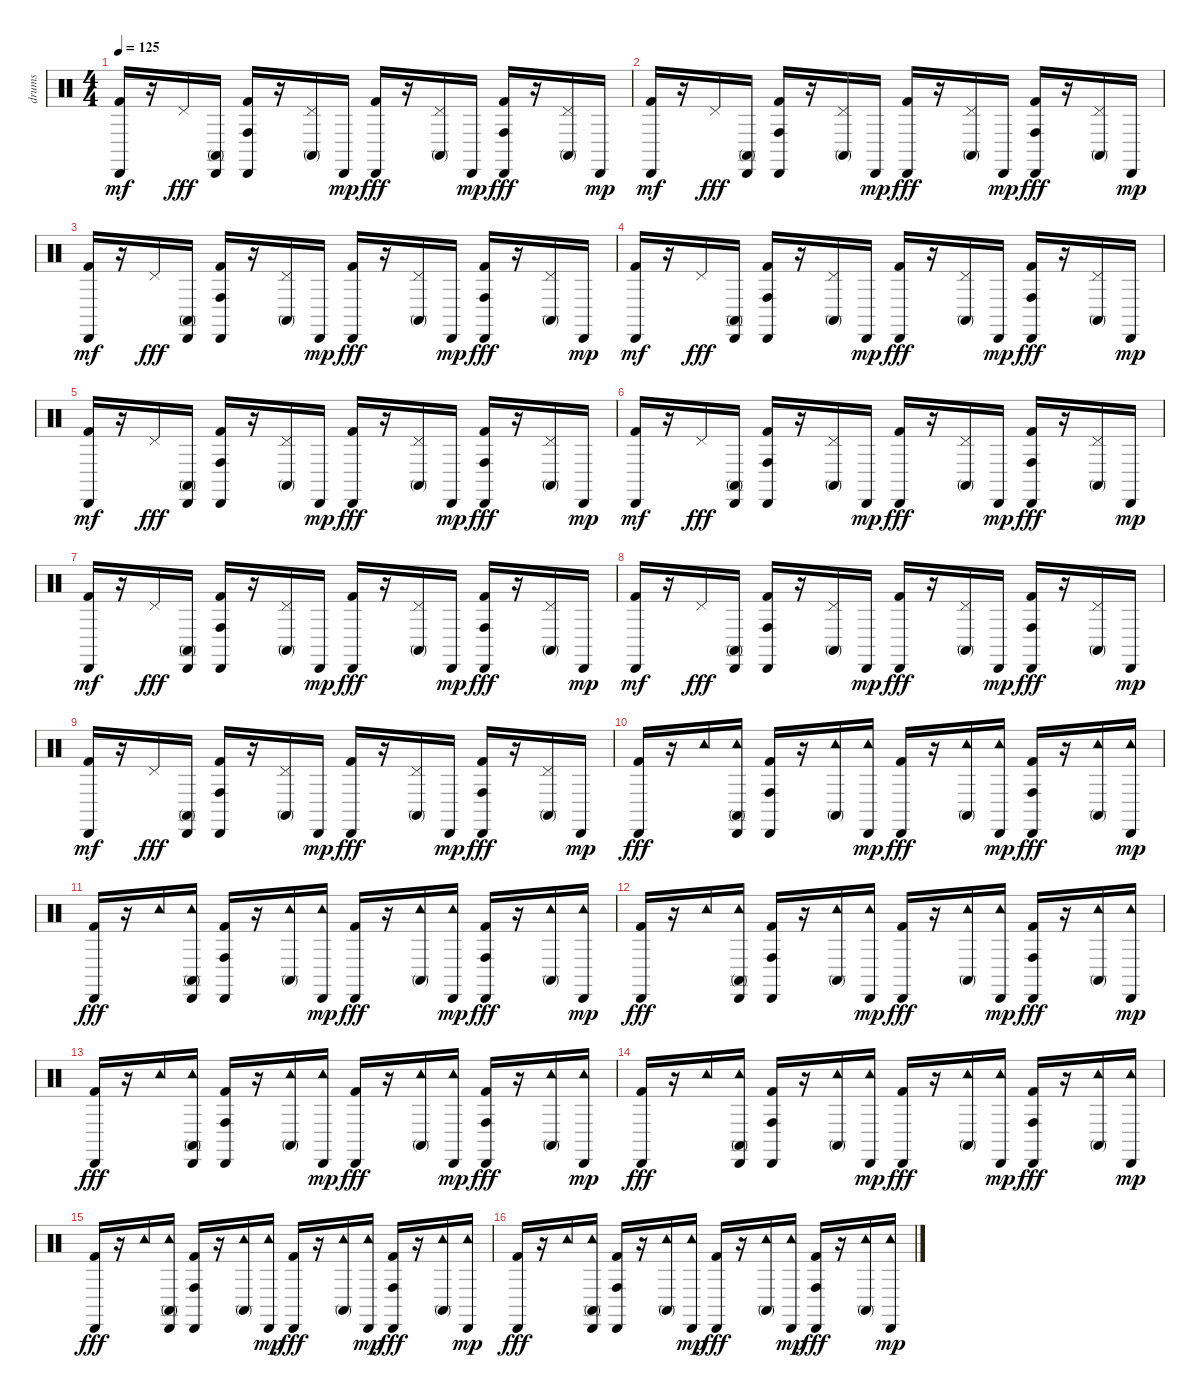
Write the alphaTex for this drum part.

\track ("drums" "drums") {instrument percussion}
\staff {score}
\articulation defaults
\ts (4 4)
\tempo 125
\clef neutral
\ks c
("Kick (hit) 2" "Cabasa (hit)").16{dy mf} r.16 "Pedal Hi-Hat (hit)".16{dy fff} ("Cabasa (hit)" "Conga high (mute)").16 ("Conga high (hit)" "Cabasa (hit)" "Kick (hit) 2").16 r.16 ("Conga high (mute)" "Pedal Hi-Hat (hit)").16 "Cabasa (hit)".16{dy mp} ("Cabasa (hit)" "Kick (hit) 2").16{dy fff} r.16 ("Conga high (mute)" "Pedal Hi-Hat (hit)").16 "Cabasa (hit)".16{dy mp} ("Cabasa (hit)" "Conga high (hit)" "Kick (hit) 2").16{dy fff} r.16 ("Conga high (mute)" "Pedal Hi-Hat (hit)").16 "Cabasa (hit)".16{dy mp} |
("Kick (hit) 2" "Cabasa (hit)").16{dy mf} r.16 "Pedal Hi-Hat (hit)".16{dy fff} ("Cabasa (hit)" "Conga high (mute)").16 ("Conga high (hit)" "Cabasa (hit)" "Kick (hit) 2").16 r.16 ("Conga high (mute)" "Pedal Hi-Hat (hit)").16 "Cabasa (hit)".16{dy mp} ("Cabasa (hit)" "Kick (hit) 2").16{dy fff} r.16 ("Conga high (mute)" "Pedal Hi-Hat (hit)").16 "Cabasa (hit)".16{dy mp} ("Cabasa (hit)" "Conga high (hit)" "Kick (hit) 2").16{dy fff} r.16 ("Conga high (mute)" "Pedal Hi-Hat (hit)").16 "Cabasa (hit)".16{dy mp} |
("Kick (hit) 2" "Cabasa (hit)").16{dy mf} r.16 "Pedal Hi-Hat (hit)".16{dy fff} ("Cabasa (hit)" "Conga high (mute)").16 ("Conga high (hit)" "Cabasa (hit)" "Kick (hit) 2").16 r.16 ("Conga high (mute)" "Pedal Hi-Hat (hit)").16 "Cabasa (hit)".16{dy mp} ("Cabasa (hit)" "Kick (hit) 2").16{dy fff} r.16 ("Conga high (mute)" "Pedal Hi-Hat (hit)").16 "Cabasa (hit)".16{dy mp} ("Cabasa (hit)" "Conga high (hit)" "Kick (hit) 2").16{dy fff} r.16 ("Conga high (mute)" "Pedal Hi-Hat (hit)").16 "Cabasa (hit)".16{dy mp} |
("Kick (hit) 2" "Cabasa (hit)").16{dy mf} r.16 "Pedal Hi-Hat (hit)".16{dy fff} ("Cabasa (hit)" "Conga high (mute)").16 ("Conga high (hit)" "Cabasa (hit)" "Kick (hit) 2").16 r.16 ("Conga high (mute)" "Pedal Hi-Hat (hit)").16 "Cabasa (hit)".16{dy mp} ("Cabasa (hit)" "Kick (hit) 2").16{dy fff} r.16 ("Conga high (mute)" "Pedal Hi-Hat (hit)").16 "Cabasa (hit)".16{dy mp} ("Cabasa (hit)" "Conga high (hit)" "Kick (hit) 2").16{dy fff} r.16 ("Conga high (mute)" "Pedal Hi-Hat (hit)").16 "Cabasa (hit)".16{dy mp} |
("Kick (hit) 2" "Cabasa (hit)").16{dy mf} r.16 "Pedal Hi-Hat (hit)".16{dy fff} ("Cabasa (hit)" "Conga high (mute)").16 ("Conga high (hit)" "Cabasa (hit)" "Kick (hit) 2").16 r.16 ("Conga high (mute)" "Pedal Hi-Hat (hit)").16 "Cabasa (hit)".16{dy mp} ("Cabasa (hit)" "Kick (hit) 2").16{dy fff} r.16 ("Conga high (mute)" "Pedal Hi-Hat (hit)").16 "Cabasa (hit)".16{dy mp} ("Cabasa (hit)" "Conga high (hit)" "Kick (hit) 2").16{dy fff} r.16 ("Conga high (mute)" "Pedal Hi-Hat (hit)").16 "Cabasa (hit)".16{dy mp} |
("Kick (hit) 2" "Cabasa (hit)").16{dy mf} r.16 "Pedal Hi-Hat (hit)".16{dy fff} ("Cabasa (hit)" "Conga high (mute)").16 ("Conga high (hit)" "Cabasa (hit)" "Kick (hit) 2").16 r.16 ("Conga high (mute)" "Pedal Hi-Hat (hit)").16 "Cabasa (hit)".16{dy mp} ("Cabasa (hit)" "Kick (hit) 2").16{dy fff} r.16 ("Conga high (mute)" "Pedal Hi-Hat (hit)").16 "Cabasa (hit)".16{dy mp} ("Cabasa (hit)" "Conga high (hit)" "Kick (hit) 2").16{dy fff} r.16 ("Conga high (mute)" "Pedal Hi-Hat (hit)").16 "Cabasa (hit)".16{dy mp} |
("Kick (hit) 2" "Cabasa (hit)").16{dy mf} r.16 "Pedal Hi-Hat (hit)".16{dy fff} ("Cabasa (hit)" "Conga high (mute)").16 ("Conga high (hit)" "Cabasa (hit)" "Kick (hit) 2").16 r.16 ("Conga high (mute)" "Pedal Hi-Hat (hit)").16 "Cabasa (hit)".16{dy mp} ("Cabasa (hit)" "Kick (hit) 2").16{dy fff} r.16 ("Conga high (mute)" "Pedal Hi-Hat (hit)").16 "Cabasa (hit)".16{dy mp} ("Cabasa (hit)" "Conga high (hit)" "Kick (hit) 2").16{dy fff} r.16 ("Conga high (mute)" "Pedal Hi-Hat (hit)").16 "Cabasa (hit)".16{dy mp} |
("Kick (hit) 2" "Cabasa (hit)").16{dy mf} r.16 "Pedal Hi-Hat (hit)".16{dy fff} ("Cabasa (hit)" "Conga high (mute)").16 ("Conga high (hit)" "Cabasa (hit)" "Kick (hit) 2").16 r.16 ("Conga high (mute)" "Pedal Hi-Hat (hit)").16 "Cabasa (hit)".16{dy mp} ("Cabasa (hit)" "Kick (hit) 2").16{dy fff} r.16 ("Conga high (mute)" "Pedal Hi-Hat (hit)").16 "Cabasa (hit)".16{dy mp} ("Cabasa (hit)" "Conga high (hit)" "Kick (hit) 2").16{dy fff} r.16 ("Conga high (mute)" "Pedal Hi-Hat (hit)").16 "Cabasa (hit)".16{dy mp} |
("Kick (hit) 2" "Cabasa (hit)").16{dy mf} r.16 "Pedal Hi-Hat (hit)".16{dy fff} ("Cabasa (hit)" "Conga high (mute)").16 ("Conga high (hit)" "Cabasa (hit)" "Kick (hit) 2").16 r.16 ("Conga high (mute)" "Pedal Hi-Hat (hit)").16 "Cabasa (hit)".16{dy mp} ("Cabasa (hit)" "Kick (hit) 2").16{dy fff} r.16 ("Conga high (mute)" "Pedal Hi-Hat (hit)").16 "Cabasa (hit)".16{dy mp} ("Cabasa (hit)" "Conga high (hit)" "Kick (hit) 2").16{dy fff} r.16 ("Conga high (mute)" "Pedal Hi-Hat (hit)").16 "Cabasa (hit)".16{dy mp} |
("Cabasa (hit)" "Kick (hit) 2").16{dy fff volume 14} r.16 "Tambourine (hit)".16 ("Tambourine (hit)" "Cabasa (hit)" "Conga high (mute)").16 ("Cabasa (hit)" "Conga high (hit)" "Kick (hit) 2").16 r.16 ("Conga high (mute)" "Tambourine (hit)").16 ("Tambourine (hit)" "Cabasa (hit)").16{dy mp} ("Cabasa (hit)" "Kick (hit) 2").16{dy fff} r.16 ("Conga high (mute)" "Tambourine (hit)").16 ("Tambourine (hit)" "Cabasa (hit)").16{dy mp} ("Cabasa (hit)" "Conga high (hit)" "Kick (hit) 2").16{dy fff} r.16 ("Conga high (mute)" "Tambourine (hit)").16 ("Tambourine (hit)" "Cabasa (hit)").16{dy mp} |
("Cabasa (hit)" "Kick (hit) 2").16{dy fff} r.16 "Tambourine (hit)".16 ("Tambourine (hit)" "Cabasa (hit)" "Conga high (mute)").16 ("Cabasa (hit)" "Conga high (hit)" "Kick (hit) 2").16 r.16 ("Conga high (mute)" "Tambourine (hit)").16 ("Tambourine (hit)" "Cabasa (hit)").16{dy mp} ("Cabasa (hit)" "Kick (hit) 2").16{dy fff} r.16 ("Conga high (mute)" "Tambourine (hit)").16 ("Tambourine (hit)" "Cabasa (hit)").16{dy mp} ("Cabasa (hit)" "Conga high (hit)" "Kick (hit) 2").16{dy fff} r.16 ("Conga high (mute)" "Tambourine (hit)").16 ("Tambourine (hit)" "Cabasa (hit)").16{dy mp} |
("Cabasa (hit)" "Kick (hit) 2").16{dy fff} r.16 "Tambourine (hit)".16 ("Tambourine (hit)" "Cabasa (hit)" "Conga high (mute)").16 ("Cabasa (hit)" "Conga high (hit)" "Kick (hit) 2").16 r.16 ("Conga high (mute)" "Tambourine (hit)").16 ("Tambourine (hit)" "Cabasa (hit)").16{dy mp} ("Cabasa (hit)" "Kick (hit) 2").16{dy fff} r.16 ("Conga high (mute)" "Tambourine (hit)").16 ("Tambourine (hit)" "Cabasa (hit)").16{dy mp} ("Cabasa (hit)" "Conga high (hit)" "Kick (hit) 2").16{dy fff} r.16 ("Conga high (mute)" "Tambourine (hit)").16 ("Tambourine (hit)" "Cabasa (hit)").16{dy mp} |
("Cabasa (hit)" "Kick (hit) 2").16{dy fff} r.16 "Tambourine (hit)".16 ("Tambourine (hit)" "Cabasa (hit)" "Conga high (mute)").16 ("Cabasa (hit)" "Conga high (hit)" "Kick (hit) 2").16 r.16 ("Conga high (mute)" "Tambourine (hit)").16 ("Tambourine (hit)" "Cabasa (hit)").16{dy mp} ("Cabasa (hit)" "Kick (hit) 2").16{dy fff} r.16 ("Conga high (mute)" "Tambourine (hit)").16 ("Tambourine (hit)" "Cabasa (hit)").16{dy mp} ("Cabasa (hit)" "Conga high (hit)" "Kick (hit) 2").16{dy fff} r.16 ("Conga high (mute)" "Tambourine (hit)").16 ("Tambourine (hit)" "Cabasa (hit)").16{dy mp} |
("Cabasa (hit)" "Kick (hit) 2").16{dy fff} r.16 "Tambourine (hit)".16 ("Tambourine (hit)" "Cabasa (hit)" "Conga high (mute)").16 ("Cabasa (hit)" "Conga high (hit)" "Kick (hit) 2").16 r.16 ("Conga high (mute)" "Tambourine (hit)").16 ("Tambourine (hit)" "Cabasa (hit)").16{dy mp} ("Cabasa (hit)" "Kick (hit) 2").16{dy fff} r.16 ("Conga high (mute)" "Tambourine (hit)").16 ("Tambourine (hit)" "Cabasa (hit)").16{dy mp} ("Cabasa (hit)" "Conga high (hit)" "Kick (hit) 2").16{dy fff} r.16 ("Conga high (mute)" "Tambourine (hit)").16 ("Tambourine (hit)" "Cabasa (hit)").16{dy mp} |
("Cabasa (hit)" "Kick (hit) 2").16{dy fff} r.16 "Tambourine (hit)".16 ("Tambourine (hit)" "Cabasa (hit)" "Conga high (mute)").16 ("Cabasa (hit)" "Conga high (hit)" "Kick (hit) 2").16 r.16 ("Conga high (mute)" "Tambourine (hit)").16 ("Tambourine (hit)" "Cabasa (hit)").16{dy mp} ("Cabasa (hit)" "Kick (hit) 2").16{dy fff} r.16 ("Conga high (mute)" "Tambourine (hit)").16 ("Tambourine (hit)" "Cabasa (hit)").16{dy mp} ("Cabasa (hit)" "Conga high (hit)" "Kick (hit) 2").16{dy fff} r.16 ("Conga high (mute)" "Tambourine (hit)").16 ("Tambourine (hit)" "Cabasa (hit)").16{dy mp} |
("Cabasa (hit)" "Kick (hit) 2").16{dy fff} r.16 "Tambourine (hit)".16 ("Tambourine (hit)" "Cabasa (hit)" "Conga high (mute)").16 ("Cabasa (hit)" "Conga high (hit)" "Kick (hit) 2").16 r.16 ("Conga high (mute)" "Tambourine (hit)").16 ("Tambourine (hit)" "Cabasa (hit)").16{dy mp} ("Cabasa (hit)" "Kick (hit) 2").16{dy fff} r.16 ("Conga high (mute)" "Tambourine (hit)").16 ("Tambourine (hit)" "Cabasa (hit)").16{dy mp} ("Cabasa (hit)" "Conga high (hit)" "Kick (hit) 2").16{dy fff} r.16 ("Conga high (mute)" "Tambourine (hit)").16 ("Tambourine (hit)" "Cabasa (hit)").16{dy mp}
